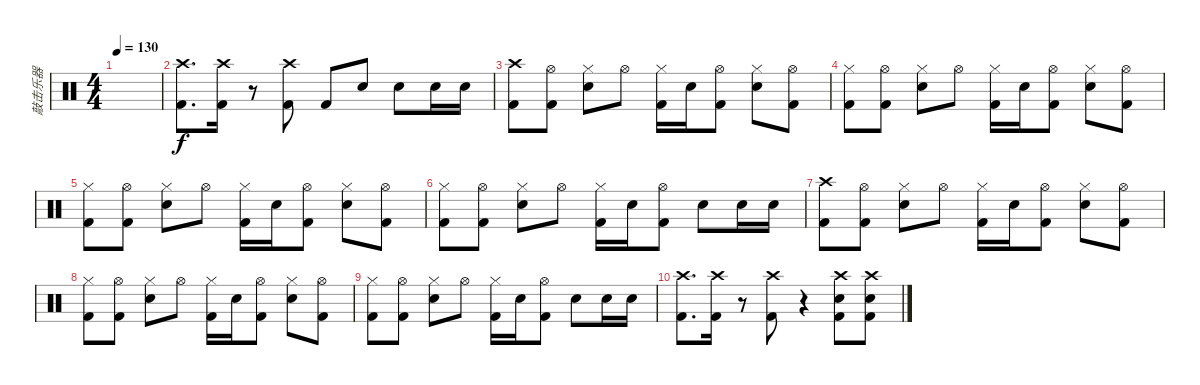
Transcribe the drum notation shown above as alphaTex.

\track ("敲击乐器" "敲击乐器") {instrument percussion}
\staff {score}
\articulation defaults
\ts (4 4)
\tempo 130
\clef neutral
\ks c
|
("Crash high (hit)" "Kick (hit) 2").8{d} ("Crash high (hit)" "Kick (hit) 2").16 r.8 ("Crash high (hit)" "Kick (hit) 2").8 "Kick (hit) 2".8 "Electric Snare (hit)".8 "Electric Snare (hit)".8 "Electric Snare (hit)".16 "Electric Snare (hit)".16 |
("Crash high (hit)" "Kick (hit) 2").8 ("Hi-Hat (open)" "Kick (hit) 2").8 ("Hi-Hat (closed)" "Electric Snare (hit)").8 "Hi-Hat (open)".8 ("Hi-Hat (closed)" "Kick (hit) 2").16 "Electric Snare (hit)".16 ("Hi-Hat (open)" "Kick (hit) 2").8 ("Hi-Hat (closed)" "Electric Snare (hit)").8 ("Hi-Hat (open)" "Kick (hit) 2").8 |
("Hi-Hat (closed)" "Kick (hit) 2").8 ("Hi-Hat (open)" "Kick (hit) 2").8 ("Hi-Hat (closed)" "Electric Snare (hit)").8 "Hi-Hat (open)".8 ("Hi-Hat (closed)" "Kick (hit) 2").16 "Electric Snare (hit)".16 ("Hi-Hat (open)" "Kick (hit) 2").8 ("Hi-Hat (closed)" "Electric Snare (hit)").8 ("Hi-Hat (open)" "Kick (hit) 2").8 |
("Hi-Hat (closed)" "Kick (hit) 2").8 ("Hi-Hat (open)" "Kick (hit) 2").8 ("Hi-Hat (closed)" "Electric Snare (hit)").8 "Hi-Hat (open)".8 ("Hi-Hat (closed)" "Kick (hit) 2").16 "Electric Snare (hit)".16 ("Hi-Hat (open)" "Kick (hit) 2").8 ("Hi-Hat (closed)" "Electric Snare (hit)").8 ("Hi-Hat (open)" "Kick (hit) 2").8 |
("Hi-Hat (closed)" "Kick (hit) 2").8 ("Hi-Hat (open)" "Kick (hit) 2").8 ("Hi-Hat (closed)" "Electric Snare (hit)").8 "Hi-Hat (open)".8 ("Hi-Hat (closed)" "Kick (hit) 2").16 "Electric Snare (hit)".16 ("Hi-Hat (open)" "Kick (hit) 2").8 "Electric Snare (hit)".8 "Electric Snare (hit)".16 "Electric Snare (hit)".16 |
("Crash high (hit)" "Kick (hit) 2").8 ("Hi-Hat (open)" "Kick (hit) 2").8 ("Hi-Hat (closed)" "Electric Snare (hit)").8 "Hi-Hat (open)".8 ("Hi-Hat (closed)" "Kick (hit) 2").16 "Electric Snare (hit)".16 ("Hi-Hat (open)" "Kick (hit) 2").8 ("Hi-Hat (closed)" "Electric Snare (hit)").8 ("Hi-Hat (open)" "Kick (hit) 2").8 |
("Hi-Hat (closed)" "Kick (hit) 2").8 ("Hi-Hat (open)" "Kick (hit) 2").8 ("Hi-Hat (closed)" "Electric Snare (hit)").8 "Hi-Hat (open)".8 ("Hi-Hat (closed)" "Kick (hit) 2").16 "Electric Snare (hit)".16 ("Hi-Hat (open)" "Kick (hit) 2").8 ("Hi-Hat (closed)" "Electric Snare (hit)").8 ("Hi-Hat (open)" "Kick (hit) 2").8 |
("Hi-Hat (closed)" "Kick (hit) 2").8 ("Hi-Hat (open)" "Kick (hit) 2").8 ("Hi-Hat (closed)" "Electric Snare (hit)").8 "Hi-Hat (open)".8 ("Hi-Hat (closed)" "Kick (hit) 2").16 "Electric Snare (hit)".16 ("Hi-Hat (open)" "Kick (hit) 2").8 "Electric Snare (hit)".8 "Electric Snare (hit)".16 "Electric Snare (hit)".16 |
("Crash high (hit)" "Kick (hit) 2").8{d} ("Crash high (hit)" "Kick (hit) 2").16 r.8 ("Crash high (hit)" "Kick (hit) 2").8 r.4 ("Electric Snare (hit)" "Crash high (hit)" "Kick (hit) 2").8 ("Electric Snare (hit)" "Crash high (hit)" "Kick (hit) 2").8
